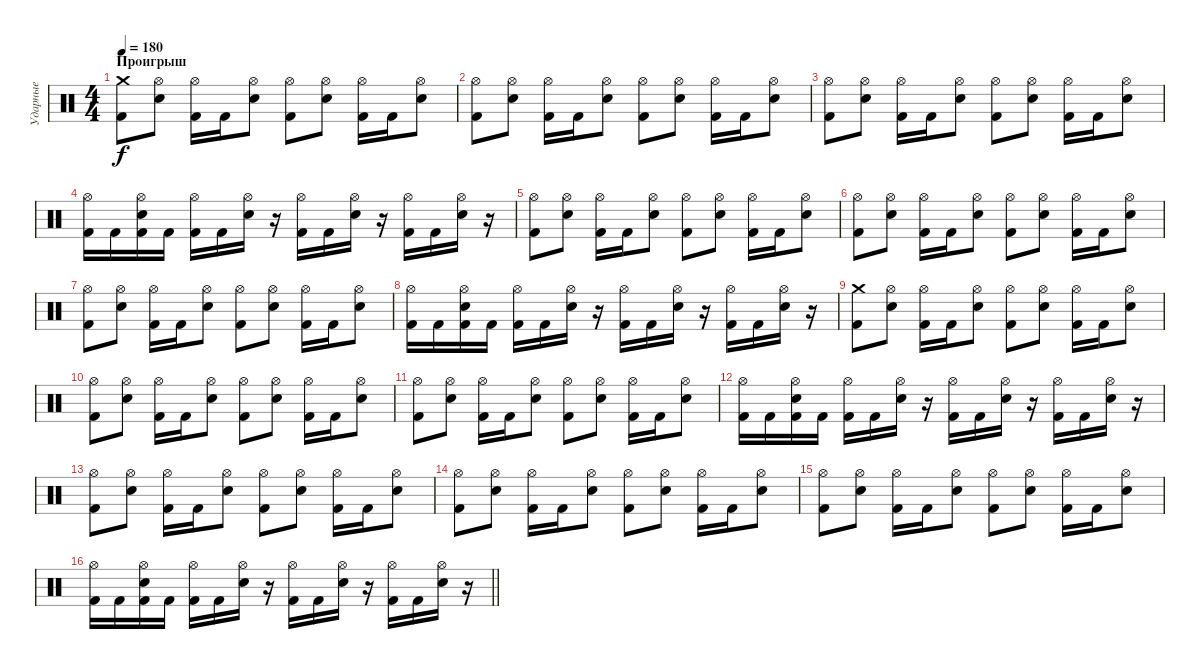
\track ("Ударные" "Ударные") {instrument percussion}
\staff {score}
\articulation defaults
\ts (4 4)
\section ("" "Проигрыш")
\tempo 180
\clef neutral
\ks c
("Crash medium (hit)" "Kick (hit) 2").8{dy f} ("Hi-Hat (open)" "Electric Snare (hit)").8 ("Hi-Hat (open)" "Kick (hit) 2").16 "Kick (hit) 2".16 ("Hi-Hat (open)" "Electric Snare (hit)").8 ("Hi-Hat (open)" "Kick (hit) 2").8 ("Hi-Hat (open)" "Electric Snare (hit)").8 ("Hi-Hat (open)" "Kick (hit) 2").16 "Kick (hit) 2".16 ("Hi-Hat (open)" "Electric Snare (hit)").8 |
("Hi-Hat (open)" "Kick (hit) 2").8 ("Hi-Hat (open)" "Electric Snare (hit)").8 ("Hi-Hat (open)" "Kick (hit) 2").16 "Kick (hit) 2".16 ("Hi-Hat (open)" "Electric Snare (hit)").8 ("Hi-Hat (open)" "Kick (hit) 2").8 ("Hi-Hat (open)" "Electric Snare (hit)").8 ("Hi-Hat (open)" "Kick (hit) 2").16 "Kick (hit) 2".16 ("Hi-Hat (open)" "Electric Snare (hit)").8 |
("Hi-Hat (open)" "Kick (hit) 2").8 ("Hi-Hat (open)" "Electric Snare (hit)").8 ("Hi-Hat (open)" "Kick (hit) 2").16 "Kick (hit) 2".16 ("Hi-Hat (open)" "Electric Snare (hit)").8 ("Hi-Hat (open)" "Kick (hit) 2").8 ("Hi-Hat (open)" "Electric Snare (hit)").8 ("Hi-Hat (open)" "Kick (hit) 2").16 "Kick (hit) 2".16 ("Hi-Hat (open)" "Electric Snare (hit)").8 |
("Hi-Hat (open)" "Kick (hit) 2").16 "Kick (hit) 2".16 ("Hi-Hat (open)" "Electric Snare (hit)" "Kick (hit) 2").16 "Kick (hit) 2".16 ("Hi-Hat (open)" "Kick (hit) 2").16 "Kick (hit) 2".16 ("Hi-Hat (open)" "Electric Snare (hit)").16 r.16 ("Hi-Hat (open)" "Kick (hit) 2").16 "Kick (hit) 2".16 ("Hi-Hat (open)" "Electric Snare (hit)").16 r.16 ("Hi-Hat (open)" "Kick (hit) 2").16 "Kick (hit) 2".16 ("Hi-Hat (open)" "Electric Snare (hit)").16 r.16 |
("Hi-Hat (open)" "Kick (hit) 2").8 ("Hi-Hat (open)" "Electric Snare (hit)").8 ("Hi-Hat (open)" "Kick (hit) 2").16 "Kick (hit) 2".16 ("Hi-Hat (open)" "Electric Snare (hit)").8 ("Hi-Hat (open)" "Kick (hit) 2").8 ("Hi-Hat (open)" "Electric Snare (hit)").8 ("Hi-Hat (open)" "Kick (hit) 2").16 "Kick (hit) 2".16 ("Hi-Hat (open)" "Electric Snare (hit)").8 |
("Hi-Hat (open)" "Kick (hit) 2").8 ("Hi-Hat (open)" "Electric Snare (hit)").8 ("Hi-Hat (open)" "Kick (hit) 2").16 "Kick (hit) 2".16 ("Hi-Hat (open)" "Electric Snare (hit)").8 ("Hi-Hat (open)" "Kick (hit) 2").8 ("Hi-Hat (open)" "Electric Snare (hit)").8 ("Hi-Hat (open)" "Kick (hit) 2").16 "Kick (hit) 2".16 ("Hi-Hat (open)" "Electric Snare (hit)").8 |
("Hi-Hat (open)" "Kick (hit) 2").8 ("Hi-Hat (open)" "Electric Snare (hit)").8 ("Hi-Hat (open)" "Kick (hit) 2").16 "Kick (hit) 2".16 ("Hi-Hat (open)" "Electric Snare (hit)").8 ("Hi-Hat (open)" "Kick (hit) 2").8 ("Hi-Hat (open)" "Electric Snare (hit)").8 ("Hi-Hat (open)" "Kick (hit) 2").16 "Kick (hit) 2".16 ("Hi-Hat (open)" "Electric Snare (hit)").8 |
("Hi-Hat (open)" "Kick (hit) 2").16 "Kick (hit) 2".16 ("Hi-Hat (open)" "Electric Snare (hit)" "Kick (hit) 2").16 "Kick (hit) 2".16 ("Hi-Hat (open)" "Kick (hit) 2").16 "Kick (hit) 2".16 ("Hi-Hat (open)" "Electric Snare (hit)").16 r.16 ("Hi-Hat (open)" "Kick (hit) 2").16 "Kick (hit) 2".16 ("Hi-Hat (open)" "Electric Snare (hit)").16 r.16 ("Hi-Hat (open)" "Kick (hit) 2").16 "Kick (hit) 2".16 ("Hi-Hat (open)" "Electric Snare (hit)").16 r.16 |
("Crash medium (hit)" "Kick (hit) 2").8 ("Hi-Hat (open)" "Electric Snare (hit)").8 ("Hi-Hat (open)" "Kick (hit) 2").16 "Kick (hit) 2".16 ("Hi-Hat (open)" "Electric Snare (hit)").8 ("Hi-Hat (open)" "Kick (hit) 2").8 ("Hi-Hat (open)" "Electric Snare (hit)").8 ("Hi-Hat (open)" "Kick (hit) 2").16 "Kick (hit) 2".16 ("Hi-Hat (open)" "Electric Snare (hit)").8 |
("Hi-Hat (open)" "Kick (hit) 2").8 ("Hi-Hat (open)" "Electric Snare (hit)").8 ("Hi-Hat (open)" "Kick (hit) 2").16 "Kick (hit) 2".16 ("Hi-Hat (open)" "Electric Snare (hit)").8 ("Hi-Hat (open)" "Kick (hit) 2").8 ("Hi-Hat (open)" "Electric Snare (hit)").8 ("Hi-Hat (open)" "Kick (hit) 2").16 "Kick (hit) 2".16 ("Hi-Hat (open)" "Electric Snare (hit)").8 |
("Hi-Hat (open)" "Kick (hit) 2").8 ("Hi-Hat (open)" "Electric Snare (hit)").8 ("Hi-Hat (open)" "Kick (hit) 2").16 "Kick (hit) 2".16 ("Hi-Hat (open)" "Electric Snare (hit)").8 ("Hi-Hat (open)" "Kick (hit) 2").8 ("Hi-Hat (open)" "Electric Snare (hit)").8 ("Hi-Hat (open)" "Kick (hit) 2").16 "Kick (hit) 2".16 ("Hi-Hat (open)" "Electric Snare (hit)").8 |
("Hi-Hat (open)" "Kick (hit) 2").16 "Kick (hit) 2".16 ("Hi-Hat (open)" "Electric Snare (hit)" "Kick (hit) 2").16 "Kick (hit) 2".16 ("Hi-Hat (open)" "Kick (hit) 2").16 "Kick (hit) 2".16 ("Hi-Hat (open)" "Electric Snare (hit)").16 r.16 ("Hi-Hat (open)" "Kick (hit) 2").16 "Kick (hit) 2".16 ("Hi-Hat (open)" "Electric Snare (hit)").16 r.16 ("Hi-Hat (open)" "Kick (hit) 2").16 "Kick (hit) 2".16 ("Hi-Hat (open)" "Electric Snare (hit)").16 r.16 |
("Hi-Hat (open)" "Kick (hit) 2").8 ("Hi-Hat (open)" "Electric Snare (hit)").8 ("Hi-Hat (open)" "Kick (hit) 2").16 "Kick (hit) 2".16 ("Hi-Hat (open)" "Electric Snare (hit)").8 ("Hi-Hat (open)" "Kick (hit) 2").8 ("Hi-Hat (open)" "Electric Snare (hit)").8 ("Hi-Hat (open)" "Kick (hit) 2").16 "Kick (hit) 2".16 ("Hi-Hat (open)" "Electric Snare (hit)").8 |
("Hi-Hat (open)" "Kick (hit) 2").8 ("Hi-Hat (open)" "Electric Snare (hit)").8 ("Hi-Hat (open)" "Kick (hit) 2").16 "Kick (hit) 2".16 ("Hi-Hat (open)" "Electric Snare (hit)").8 ("Hi-Hat (open)" "Kick (hit) 2").8 ("Hi-Hat (open)" "Electric Snare (hit)").8 ("Hi-Hat (open)" "Kick (hit) 2").16 "Kick (hit) 2".16 ("Hi-Hat (open)" "Electric Snare (hit)").8 |
("Hi-Hat (open)" "Kick (hit) 2").8 ("Hi-Hat (open)" "Electric Snare (hit)").8 ("Hi-Hat (open)" "Kick (hit) 2").16 "Kick (hit) 2".16 ("Hi-Hat (open)" "Electric Snare (hit)").8 ("Hi-Hat (open)" "Kick (hit) 2").8 ("Hi-Hat (open)" "Electric Snare (hit)").8 ("Hi-Hat (open)" "Kick (hit) 2").16 "Kick (hit) 2".16 ("Hi-Hat (open)" "Electric Snare (hit)").8 |
\barLineRight lightlight
("Hi-Hat (open)" "Kick (hit) 2").16 "Kick (hit) 2".16 ("Hi-Hat (open)" "Electric Snare (hit)" "Kick (hit) 2").16 "Kick (hit) 2".16 ("Hi-Hat (open)" "Kick (hit) 2").16 "Kick (hit) 2".16 ("Hi-Hat (open)" "Electric Snare (hit)").16 r.16 ("Hi-Hat (open)" "Kick (hit) 2").16 "Kick (hit) 2".16 ("Hi-Hat (open)" "Electric Snare (hit)").16 r.16 ("Hi-Hat (open)" "Kick (hit) 2").16 "Kick (hit) 2".16 ("Hi-Hat (open)" "Electric Snare (hit)").16 r.16
